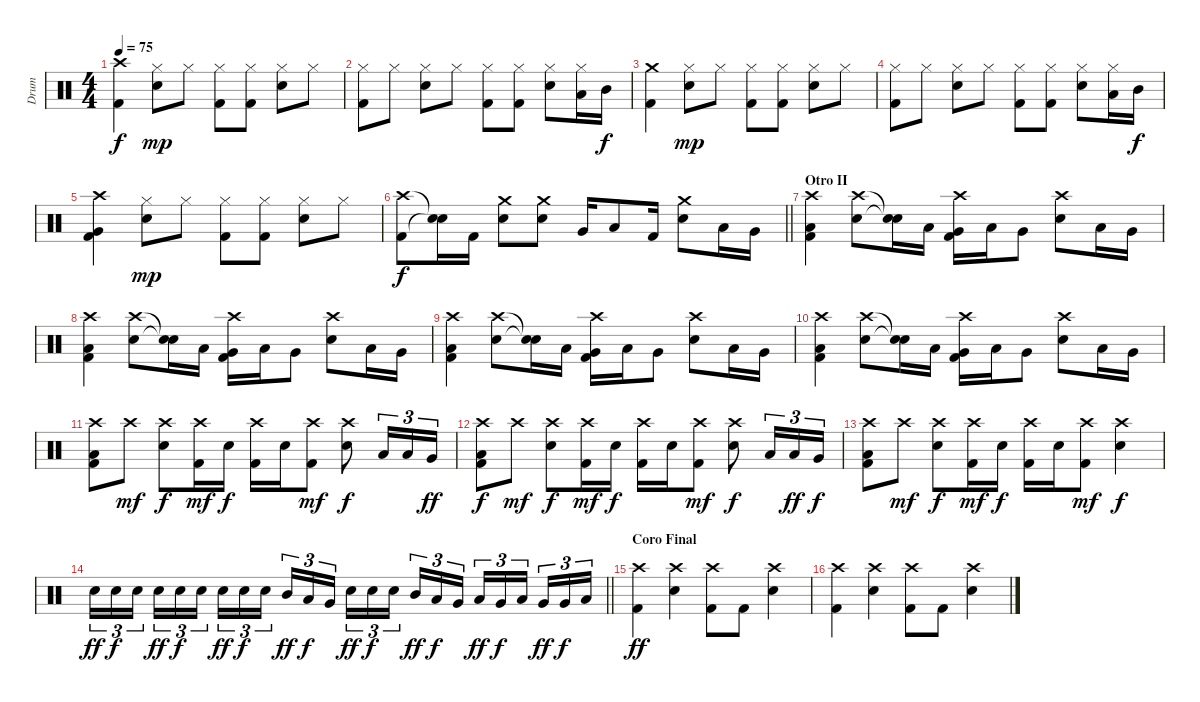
\track ("Drum" "Drum") {instrument percussion}
\staff {score}
\articulation defaults
\ts (4 4)
\tempo 75
\clef neutral
\ks c
("Crash high (hit)" "Kick (hit) 2").4{dy f} ("Hi-Hat (closed)" "Snare (hit) 2").8{dy mp} "Hi-Hat (closed)".8 ("Hi-Hat (closed)" "Kick (hit) 2").8 ("Hi-Hat (closed)" "Kick (hit) 2").8 ("Hi-Hat (closed)" "Snare (hit) 2").8 "Hi-Hat (closed)".8 |
("Hi-Hat (closed)" "Kick (hit) 2").8 "Hi-Hat (closed)".8 ("Hi-Hat (closed)" "Snare (hit) 2").8 "Hi-Hat (closed)".8 ("Hi-Hat (closed)" "Kick (hit) 2").8 ("Hi-Hat (closed)" "Kick (hit) 2").8 ("Hi-Hat (closed)" "Snare (hit) 2").8 ("Hi-Hat (closed)" "Low Tom (hit)").16 "Mid Tom (hit)".16{dy f} |
("Crash medium (hit)" "Kick (hit) 2").4 ("Hi-Hat (closed)" "Snare (hit) 2").8{dy mp} "Hi-Hat (closed)".8 ("Hi-Hat (closed)" "Kick (hit) 2").8 ("Hi-Hat (closed)" "Kick (hit) 2").8 ("Hi-Hat (closed)" "Snare (hit) 2").8 "Hi-Hat (closed)".8 |
("Hi-Hat (closed)" "Kick (hit) 2").8 "Hi-Hat (closed)".8 ("Hi-Hat (closed)" "Snare (hit) 2").8 "Hi-Hat (closed)".8 ("Hi-Hat (closed)" "Kick (hit) 2").8 ("Hi-Hat (closed)" "Kick (hit) 2").8 ("Hi-Hat (closed)" "Snare (hit) 2").8 ("Hi-Hat (closed)" "Low Tom (hit)").16 "Mid Tom (hit)".16{dy f} |
("Crash high (hit)" "Very Low Tom (hit)" "Kick (hit) 2").4 ("Hi-Hat (closed)" "Snare (hit) 2").8{dy mp} "Hi-Hat (closed)".8 ("Hi-Hat (closed)" "Kick (hit) 2").8 ("Hi-Hat (closed)" "Kick (hit) 2").8 ("Hi-Hat (closed)" "Snare (hit) 2").8 "Hi-Hat (closed)".8 |
\barLineRight lightlight
("Crash high (hit)" "Kick (hit) 2").8{dy f} ("Snare (hit)"{t} "Snare (hit)"{t}).16 "Kick (hit) 2".16 ("Crash medium (hit)" "Snare (hit) 2").8 ("Crash medium (hit)" "Snare (hit) 2").8 "Very Low Tom (hit)".16 "Low Tom (hit)".8 "Kick (hit) 2".16 ("Crash medium (hit)" "Snare (hit) 2").8 "Low Tom (hit)".16 "Very Low Tom (hit)".16 |
\section ("" "Otro II")
("Crash high (hit)" "Low Floor Tom (hit)" "Kick (hit) 2").4 ("Crash high (hit)" "Snare (hit) 2").8 ("Snare (hit)"{t} "Snare (hit)"{t}).16 "Low Tom (hit)".16 ("Crash high (hit)" "Very Low Tom (hit)" "Kick (hit) 2").16 "Low Tom (hit)".16 "Very Low Tom (hit)".8 ("Crash high (hit)" "Snare (hit) 2").8 "Low Tom (hit)".16 "Very Low Tom (hit)".16 |
("Crash high (hit)" "Low Floor Tom (hit)" "Kick (hit) 2").4 ("Crash high (hit)" "Snare (hit) 2").8 ("Snare (hit)"{t} "Snare (hit)"{t}).16 "Low Tom (hit)".16 ("Crash high (hit)" "Very Low Tom (hit)" "Kick (hit) 2").16 "Low Tom (hit)".16 "Very Low Tom (hit)".8 ("Crash high (hit)" "Snare (hit) 2").8 "Low Tom (hit)".16 "Very Low Tom (hit)".16 |
("Crash high (hit)" "Low Floor Tom (hit)" "Kick (hit) 2").4 ("Crash high (hit)" "Snare (hit) 2").8 ("Snare (hit)"{t} "Snare (hit)"{t}).16 "Low Tom (hit)".16 ("Crash high (hit)" "Very Low Tom (hit)" "Kick (hit) 2").16 "Low Tom (hit)".16 "Very Low Tom (hit)".8 ("Crash high (hit)" "Snare (hit) 2").8 "Low Tom (hit)".16 "Very Low Tom (hit)".16 |
("Crash high (hit)" "Low Floor Tom (hit)" "Kick (hit) 2").4 ("Crash high (hit)" "Snare (hit) 2").8 ("Snare (hit)"{t} "Snare (hit)"{t}).16 "Low Tom (hit)".16 ("Crash high (hit)" "Very Low Tom (hit)" "Kick (hit) 2").16 "Low Tom (hit)".16 "Very Low Tom (hit)".8 ("Crash high (hit)" "Snare (hit) 2").8 "Low Tom (hit)".16 "Very Low Tom (hit)".16 |
("Crash high (hit)" "Low Floor Tom (hit)" "Kick (hit) 2").8 "Crash high (hit)".8{dy mf} ("Crash high (hit)" "Snare (hit) 2").8{dy f} ("Crash high (hit)" "Kick (hit) 2").16{dy mf} "Snare (hit) 2".16{dy f} ("Crash high (hit)" "Kick (hit) 2").16 "Snare (hit) 2".16 ("Crash high (hit)" "Kick (hit) 2").8{dy mf} ("Crash high (hit)" "Snare (hit) 2").8{dy f} "Low Tom (hit)".16{tu (3 2)} "Low Tom (hit)".16{tu (3 2)} "Very Low Tom (hit)".16{tu (3 2) dy ff} |
("Crash high (hit)" "Low Floor Tom (hit)" "Kick (hit) 2").8{dy f} "Crash high (hit)".8{dy mf} ("Crash high (hit)" "Snare (hit) 2").8{dy f} ("Crash high (hit)" "Kick (hit) 2").16{dy mf} "Snare (hit) 2".16{dy f} ("Crash high (hit)" "Kick (hit) 2").16 "Snare (hit) 2".16 ("Crash high (hit)" "Kick (hit) 2").8{dy mf} ("Crash high (hit)" "Snare (hit) 2").8{dy f} "Low Tom (hit)".16{tu (3 2)} "Low Tom (hit)".16{tu (3 2) dy ff} "Very Low Tom (hit)".16{tu (3 2) dy f} |
("Crash high (hit)" "Low Floor Tom (hit)" "Kick (hit) 2").8 "Crash high (hit)".8{dy mf} ("Crash high (hit)" "Snare (hit) 2").8{dy f} ("Crash high (hit)" "Kick (hit) 2").16{dy mf} "Snare (hit) 2".16{dy f} ("Crash high (hit)" "Kick (hit) 2").16 "Snare (hit) 2".16 ("Crash high (hit)" "Kick (hit) 2").8{dy mf} ("Crash high (hit)" "Snare (hit) 2").4{dy f} |
\barLineRight lightlight "Snare (hit) 2".16{tu (3 2) dy ff} "Snare (hit) 2".16{tu (3 2) dy f} "Snare (hit) 2".16{tu (3 2) beam splitsecondary} "Snare (hit) 2".16{tu (3 2) dy ff} "Snare (hit) 2".16{tu (3 2) dy f} "Snare (hit) 2".16{tu (3 2)} "Snare (hit) 2".16{tu (3 2) dy ff} "Snare (hit) 2".16{tu (3 2) dy f} "Snare (hit) 2".16{tu (3 2) beam splitsecondary} "Mid Tom (hit)".16{tu (3 2) dy ff} "Low Tom (hit)".16{tu (3 2) dy f} "Very Low Tom (hit)".16{tu (3 2)} "Snare (hit) 2".16{tu (3 2) dy ff} "Snare (hit) 2".16{tu (3 2) dy f} "Snare (hit) 2".16{tu (3 2) beam splitsecondary} "Mid Tom (hit)".16{tu (3 2) dy ff} "Low Tom (hit)".16{tu (3 2) dy f} "Very Low Tom (hit)".16{tu (3 2)} "Low Tom (hit)".16{tu (3 2) dy ff} "Very Low Tom (hit)".16{tu (3 2) dy f} "Low Floor Tom (hit)".16{tu (3 2) beam splitsecondary} "Very Low Tom (hit)".16{tu (3 2) dy ff} "Very Low Tom (hit)".16{tu (3 2) dy f} "Low Floor Tom (hit)".16{tu (3 2)}
|
\section ("" "Coro Final")
("Crash high (hit)" "Kick (hit) 2").4{dy ff} ("Crash high (hit)" "Snare (hit) 2").4 ("Crash high (hit)" "Kick (hit) 2").8 "Kick (hit) 2".8 ("Crash high (hit)" "Snare (hit) 2").4 |
("Crash high (hit)" "Kick (hit) 2").4 ("Crash high (hit)" "Snare (hit) 2").4 ("Crash high (hit)" "Kick (hit) 2").8 "Kick (hit) 2".8 ("Crash high (hit)" "Snare (hit) 2").4
